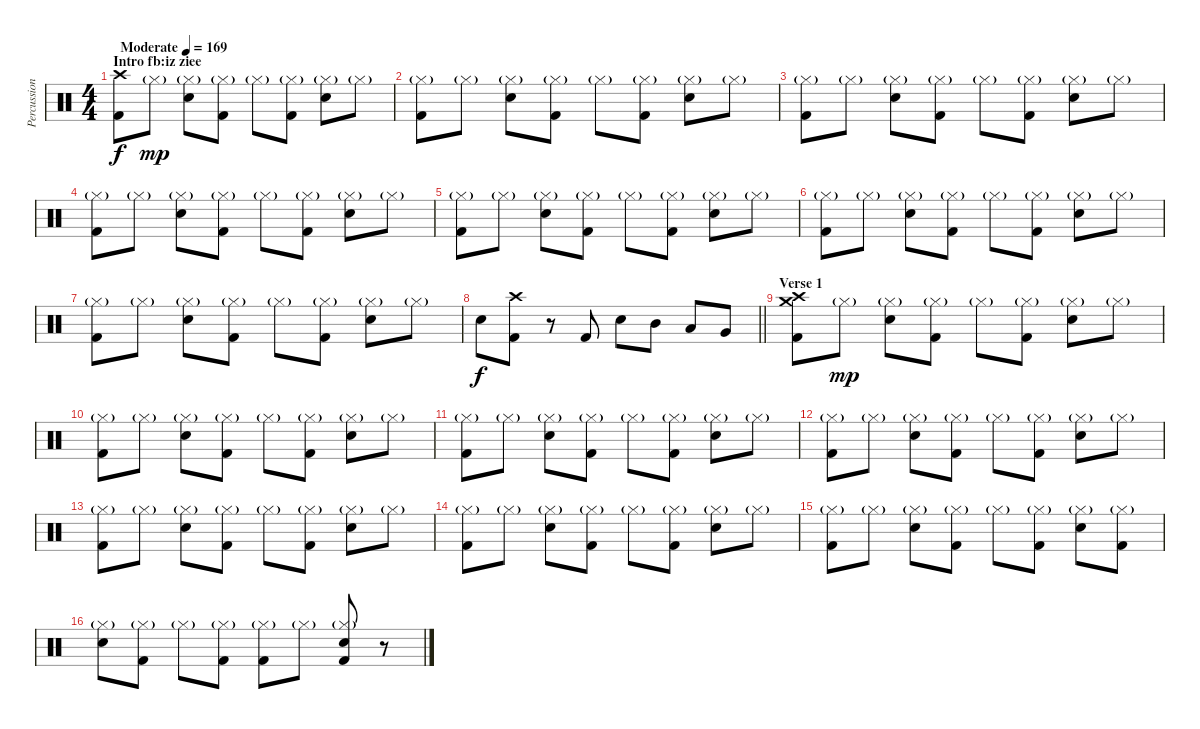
\track ("Percussion" "Percussion") {instrument percussion}
\staff {score}
\articulation defaults
\ts (4 4)
\section ("" "Intro fb:iz ziee")
\tempo (169 "Moderate")
\clef neutral
\ks c
("Crash high (hit)" "Kick (hit) 2").8{dy f} "Hi-Hat (closed)"{g}.8{dy mp} ("Hi-Hat (closed)"{g} "Snare (hit) 2").8 ("Hi-Hat (closed)"{g} "Kick (hit) 2").8 "Hi-Hat (closed)"{g}.8 ("Hi-Hat (closed)"{g} "Kick (hit) 2").8 ("Hi-Hat (closed)"{g} "Snare (hit) 2").8 "Hi-Hat (closed)"{g}.8 |
("Hi-Hat (closed)"{g} "Kick (hit) 2").8 "Hi-Hat (closed)"{g}.8 ("Hi-Hat (closed)"{g} "Snare (hit) 2").8 ("Hi-Hat (closed)"{g} "Kick (hit) 2").8 "Hi-Hat (closed)"{g}.8 ("Hi-Hat (closed)"{g} "Kick (hit) 2").8 ("Hi-Hat (closed)"{g} "Snare (hit) 2").8 "Hi-Hat (closed)"{g}.8 |
("Hi-Hat (closed)"{g} "Kick (hit) 2").8 "Hi-Hat (closed)"{g}.8 ("Hi-Hat (closed)"{g} "Snare (hit) 2").8 ("Hi-Hat (closed)"{g} "Kick (hit) 2").8 "Hi-Hat (closed)"{g}.8 ("Hi-Hat (closed)"{g} "Kick (hit) 2").8 ("Hi-Hat (closed)"{g} "Snare (hit) 2").8 "Hi-Hat (closed)"{g}.8 |
("Hi-Hat (closed)"{g} "Kick (hit) 2").8 "Hi-Hat (closed)"{g}.8 ("Hi-Hat (closed)"{g} "Snare (hit) 2").8 ("Hi-Hat (closed)"{g} "Kick (hit) 2").8 "Hi-Hat (closed)"{g}.8 ("Hi-Hat (closed)"{g} "Kick (hit) 2").8 ("Hi-Hat (closed)"{g} "Snare (hit) 2").8 "Hi-Hat (closed)"{g}.8 |
("Hi-Hat (closed)"{g} "Kick (hit) 2").8 "Hi-Hat (closed)"{g}.8 ("Hi-Hat (closed)"{g} "Snare (hit) 2").8 ("Hi-Hat (closed)"{g} "Kick (hit) 2").8 "Hi-Hat (closed)"{g}.8 ("Hi-Hat (closed)"{g} "Kick (hit) 2").8 ("Hi-Hat (closed)"{g} "Snare (hit) 2").8 "Hi-Hat (closed)"{g}.8 |
("Hi-Hat (closed)"{g} "Kick (hit) 2").8 "Hi-Hat (closed)"{g}.8 ("Hi-Hat (closed)"{g} "Snare (hit) 2").8 ("Hi-Hat (closed)"{g} "Kick (hit) 2").8 "Hi-Hat (closed)"{g}.8 ("Hi-Hat (closed)"{g} "Kick (hit) 2").8 ("Hi-Hat (closed)"{g} "Snare (hit) 2").8 "Hi-Hat (closed)"{g}.8 |
("Hi-Hat (closed)"{g} "Kick (hit) 2").8 "Hi-Hat (closed)"{g}.8 ("Hi-Hat (closed)"{g} "Snare (hit) 2").8 ("Hi-Hat (closed)"{g} "Kick (hit) 2").8 "Hi-Hat (closed)"{g}.8 ("Hi-Hat (closed)"{g} "Kick (hit) 2").8 ("Hi-Hat (closed)"{g} "Snare (hit) 2").8 "Hi-Hat (closed)"{g}.8 |
\barLineRight lightlight "Snare (hit) 2".8{dy f}
("Crash high (hit)" "Kick (hit) 2").8 r.8 "Kick (hit) 2".8 "Snare (hit) 2".8 "Mid Tom (hit)".8 "Low Tom (hit)".8 "Very Low Tom (hit)".8 |
\section ("" "Verse 1")
("Crash high (hit)" "Crash medium (hit)" "Kick (hit) 2").8 "Hi-Hat (closed)"{g}.8{dy mp} ("Hi-Hat (closed)"{g} "Snare (hit) 2").8 ("Hi-Hat (closed)"{g} "Kick (hit) 2").8 "Hi-Hat (closed)"{g}.8 ("Hi-Hat (closed)"{g} "Kick (hit) 2").8 ("Hi-Hat (closed)"{g} "Snare (hit) 2").8 "Hi-Hat (closed)"{g}.8 |
("Hi-Hat (closed)"{g} "Kick (hit) 2").8 "Hi-Hat (closed)"{g}.8 ("Hi-Hat (closed)"{g} "Snare (hit) 2").8 ("Hi-Hat (closed)"{g} "Kick (hit) 2").8 "Hi-Hat (closed)"{g}.8 ("Hi-Hat (closed)"{g} "Kick (hit) 2").8 ("Hi-Hat (closed)"{g} "Snare (hit) 2").8 "Hi-Hat (closed)"{g}.8 |
("Hi-Hat (closed)"{g} "Kick (hit) 2").8 "Hi-Hat (closed)"{g}.8 ("Hi-Hat (closed)"{g} "Snare (hit) 2").8 ("Hi-Hat (closed)"{g} "Kick (hit) 2").8 "Hi-Hat (closed)"{g}.8 ("Hi-Hat (closed)"{g} "Kick (hit) 2").8 ("Hi-Hat (closed)"{g} "Snare (hit) 2").8 "Hi-Hat (closed)"{g}.8 |
("Hi-Hat (closed)"{g} "Kick (hit) 2").8 "Hi-Hat (closed)"{g}.8 ("Hi-Hat (closed)"{g} "Snare (hit) 2").8 ("Hi-Hat (closed)"{g} "Kick (hit) 2").8 "Hi-Hat (closed)"{g}.8 ("Hi-Hat (closed)"{g} "Kick (hit) 2").8 ("Hi-Hat (closed)"{g} "Snare (hit) 2").8 "Hi-Hat (closed)"{g}.8 |
("Hi-Hat (closed)"{g} "Kick (hit) 2").8 "Hi-Hat (closed)"{g}.8 ("Hi-Hat (closed)"{g} "Snare (hit) 2").8 ("Hi-Hat (closed)"{g} "Kick (hit) 2").8 "Hi-Hat (closed)"{g}.8 ("Hi-Hat (closed)"{g} "Kick (hit) 2").8 ("Hi-Hat (closed)"{g} "Snare (hit) 2").8 "Hi-Hat (closed)"{g}.8 |
("Hi-Hat (closed)"{g} "Kick (hit) 2").8 "Hi-Hat (closed)"{g}.8 ("Hi-Hat (closed)"{g} "Snare (hit) 2").8 ("Hi-Hat (closed)"{g} "Kick (hit) 2").8 "Hi-Hat (closed)"{g}.8 ("Hi-Hat (closed)"{g} "Kick (hit) 2").8 ("Hi-Hat (closed)"{g} "Snare (hit) 2").8 "Hi-Hat (closed)"{g}.8 |
("Hi-Hat (closed)"{g} "Kick (hit) 2").8 "Hi-Hat (closed)"{g}.8 ("Hi-Hat (closed)"{g} "Snare (hit) 2").8 ("Hi-Hat (closed)"{g} "Kick (hit) 2").8 "Hi-Hat (closed)"{g}.8 ("Hi-Hat (closed)"{g} "Kick (hit) 2").8 ("Hi-Hat (closed)"{g} "Snare (hit) 2").8 ("Hi-Hat (closed)"{g} "Kick (hit) 2").8 |
("Hi-Hat (closed)"{g} "Snare (hit) 2").8 ("Hi-Hat (closed)"{g} "Kick (hit) 2").8 "Hi-Hat (closed)"{g}.8 ("Hi-Hat (closed)"{g} "Kick (hit) 2").8 ("Hi-Hat (closed)"{g} "Kick (hit) 2").8 "Hi-Hat (closed)"{g}.8 ("Hi-Hat (closed)"{g} "Snare (hit) 2" "Kick (hit) 2").8 r.8
